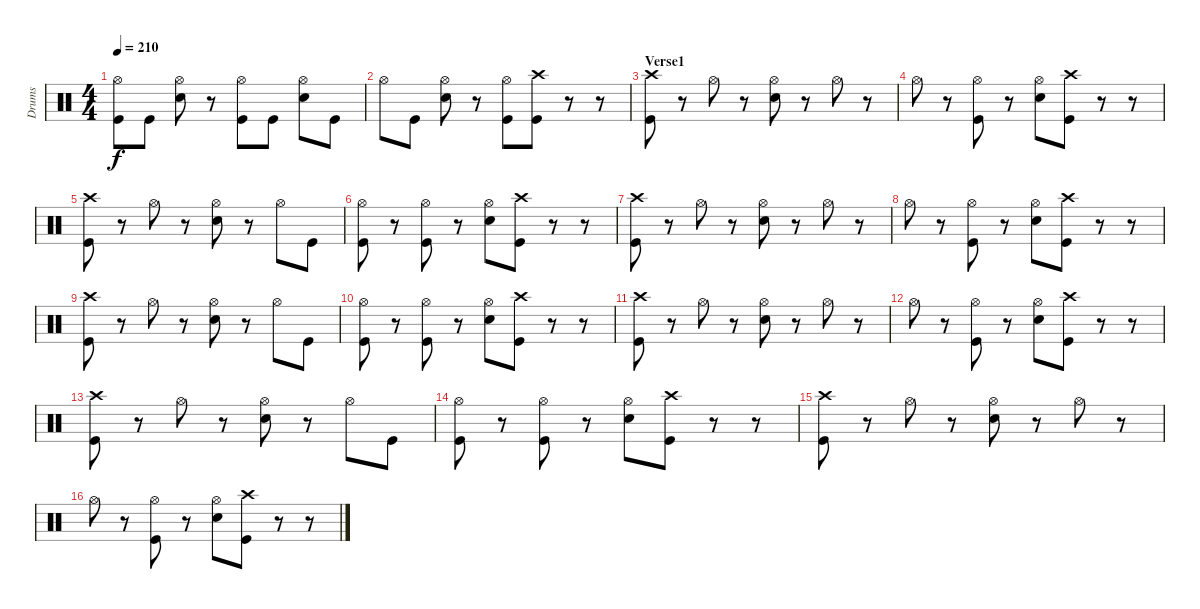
\track ("Drums" "Drums") {instrument percussion}
\staff {score}
\articulation defaults
\ts (4 4)
\tempo 210
\clef neutral
\ks c
("Hi-Hat (open)" "Kick (hit)").8{dy f} "Kick (hit)".8 ("Hi-Hat (open)" "Snare (hit) 2").8 r.8 ("Hi-Hat (open)" "Kick (hit)").8 "Kick (hit)".8 ("Hi-Hat (open)" "Snare (hit) 2").8 "Kick (hit)".8 |
"Hi-Hat (open)".8 "Kick (hit)".8 ("Hi-Hat (open)" "Snare (hit) 2").8 r.8 ("Hi-Hat (open)" "Kick (hit)").8 ("Crash high (hit)" "Kick (hit)").8 r.8 r.8 |
\section ("" "Verse1")
("Crash high (hit)" "Kick (hit)").8 r.8 "Hi-Hat (open)".8 r.8 ("Hi-Hat (open)" "Snare (hit) 2").8 r.8 "Hi-Hat (open)".8 r.8 |
"Hi-Hat (open)".8 r.8 ("Hi-Hat (open)" "Kick (hit)").8 r.8 ("Hi-Hat (open)" "Snare (hit) 2").8 ("Crash high (hit)" "Kick (hit)").8 r.8 r.8 |
("Crash high (hit)" "Kick (hit)").8 r.8 "Hi-Hat (open)".8 r.8 ("Hi-Hat (open)" "Snare (hit) 2").8 r.8 "Hi-Hat (open)".8 "Kick (hit)".8 |
("Hi-Hat (open)" "Kick (hit)").8 r.8 ("Hi-Hat (open)" "Kick (hit)").8 r.8 ("Hi-Hat (open)" "Snare (hit) 2").8 ("Crash high (hit)" "Kick (hit)").8 r.8 r.8 |
("Crash high (hit)" "Kick (hit)").8 r.8 "Hi-Hat (open)".8 r.8 ("Hi-Hat (open)" "Snare (hit) 2").8 r.8 "Hi-Hat (open)".8 r.8 |
"Hi-Hat (open)".8 r.8 ("Hi-Hat (open)" "Kick (hit)").8 r.8 ("Hi-Hat (open)" "Snare (hit) 2").8 ("Crash high (hit)" "Kick (hit)").8 r.8 r.8 |
("Crash high (hit)" "Kick (hit)").8 r.8 "Hi-Hat (open)".8 r.8 ("Hi-Hat (open)" "Snare (hit) 2").8 r.8 "Hi-Hat (open)".8 "Kick (hit)".8 |
("Hi-Hat (open)" "Kick (hit)").8 r.8 ("Hi-Hat (open)" "Kick (hit)").8 r.8 ("Hi-Hat (open)" "Snare (hit) 2").8 ("Crash high (hit)" "Kick (hit)").8 r.8 r.8 |
("Crash high (hit)" "Kick (hit)").8 r.8 "Hi-Hat (open)".8 r.8 ("Hi-Hat (open)" "Snare (hit) 2").8 r.8 "Hi-Hat (open)".8 r.8 |
"Hi-Hat (open)".8 r.8 ("Hi-Hat (open)" "Kick (hit)").8 r.8 ("Hi-Hat (open)" "Snare (hit) 2").8 ("Crash high (hit)" "Kick (hit)").8 r.8 r.8 |
("Crash high (hit)" "Kick (hit)").8 r.8 "Hi-Hat (open)".8 r.8 ("Hi-Hat (open)" "Snare (hit) 2").8 r.8 "Hi-Hat (open)".8 "Kick (hit)".8 |
("Hi-Hat (open)" "Kick (hit)").8 r.8 ("Hi-Hat (open)" "Kick (hit)").8 r.8 ("Hi-Hat (open)" "Snare (hit) 2").8 ("Crash high (hit)" "Kick (hit)").8 r.8 r.8 |
("Crash high (hit)" "Kick (hit)").8 r.8 "Hi-Hat (open)".8 r.8 ("Hi-Hat (open)" "Snare (hit) 2").8 r.8 "Hi-Hat (open)".8 r.8 |
"Hi-Hat (open)".8 r.8 ("Hi-Hat (open)" "Kick (hit)").8 r.8 ("Hi-Hat (open)" "Snare (hit) 2").8 ("Crash high (hit)" "Kick (hit)").8 r.8 r.8
